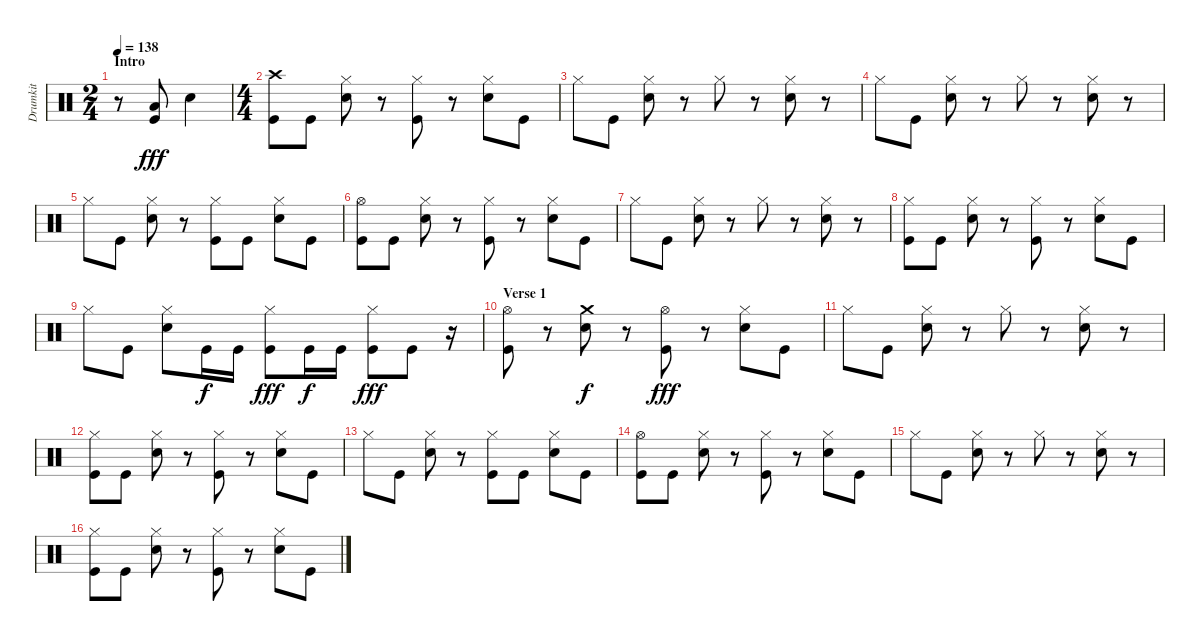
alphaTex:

\track ("Drumkit" "Drumkit") {instrument percussion}
\staff {score}
\articulation defaults
\ts (2 4)
\section ("" "Intro")
\tempo 138
\clef neutral
\ks c
r.8{dy fff} ("Low Tom (hit)" "Kick (hit)").8 "Snare (hit) 2".4 |
\ts (4 4)
("Crash high (hit)" "Kick (hit)").8 "Kick (hit)".8 ("Hi-Hat (closed)" "Snare (hit) 2").8 r.8 ("Hi-Hat (closed)" "Kick (hit)").8 r.8 ("Hi-Hat (closed)" "Snare (hit) 2").8 "Kick (hit)".8 |
"Hi-Hat (closed)".8 "Kick (hit)".8 ("Hi-Hat (closed)" "Snare (hit) 2").8 r.8 "Hi-Hat (closed)".8 r.8 ("Hi-Hat (closed)" "Snare (hit) 2").8 r.8 |
"Hi-Hat (closed)".8 "Kick (hit)".8 ("Hi-Hat (closed)" "Snare (hit) 2").8 r.8 "Hi-Hat (closed)".8 r.8 ("Hi-Hat (closed)" "Snare (hit) 2").8 r.8 |
"Hi-Hat (closed)".8 "Kick (hit)".8 ("Hi-Hat (closed)" "Snare (hit) 2").8 r.8 ("Hi-Hat (closed)" "Kick (hit)").8 "Kick (hit)".8 ("Hi-Hat (closed)" "Snare (hit) 2").8 "Kick (hit)".8 |
("Hi-Hat (open)" "Kick (hit)").8 "Kick (hit)".8 ("Hi-Hat (closed)" "Snare (hit) 2").8 r.8 ("Hi-Hat (closed)" "Kick (hit)").8 r.8 ("Hi-Hat (closed)" "Snare (hit) 2").8 "Kick (hit)".8 |
"Hi-Hat (closed)".8 "Kick (hit)".8 ("Hi-Hat (closed)" "Snare (hit) 2").8 r.8 "Hi-Hat (closed)".8 r.8 ("Hi-Hat (closed)" "Snare (hit) 2").8 r.8 |
("Hi-Hat (closed)" "Kick (hit)").8 "Kick (hit)".8 ("Hi-Hat (closed)" "Snare (hit) 2").8 r.8 ("Hi-Hat (closed)" "Kick (hit)").8 r.8 ("Hi-Hat (closed)" "Snare (hit) 2").8 "Kick (hit)".8 |
"Hi-Hat (closed)".8 "Kick (hit)".8 ("Hi-Hat (closed)" "Snare (hit) 2").8 "Kick (hit)".16{dy f} "Kick (hit)".16 ("Hi-Hat (closed)" "Kick (hit)").8{dy fff} "Kick (hit)".16{dy f} "Kick (hit)".16 ("Hi-Hat (closed)" "Kick (hit)").8{dy fff} "Kick (hit)".8 r.16 |
\section ("" "Verse 1")
("Hi-Hat (open)" "Kick (hit)").8 r.8 ("Crash medium (hit)" "Snare (hit) 2").8{dy f} r.8 ("Hi-Hat (open)" "Kick (hit)").8{dy fff} r.8 ("Hi-Hat (closed)" "Snare (hit) 2").8 "Kick (hit)".8 |
"Hi-Hat (closed)".8 "Kick (hit)".8 ("Hi-Hat (closed)" "Snare (hit) 2").8 r.8 "Hi-Hat (closed)".8 r.8 ("Hi-Hat (closed)" "Snare (hit) 2").8 r.8 |
("Hi-Hat (closed)" "Kick (hit)").8 "Kick (hit)".8 ("Hi-Hat (closed)" "Snare (hit) 2").8 r.8 ("Hi-Hat (closed)" "Kick (hit)").8 r.8 ("Hi-Hat (closed)" "Snare (hit) 2").8 "Kick (hit)".8 |
"Hi-Hat (closed)".8 "Kick (hit)".8 ("Hi-Hat (closed)" "Snare (hit) 2").8 r.8 ("Hi-Hat (closed)" "Kick (hit)").8 "Kick (hit)".8 ("Hi-Hat (closed)" "Snare (hit) 2").8 "Kick (hit)".8 |
("Hi-Hat (open)" "Kick (hit)").8 "Kick (hit)".8 ("Hi-Hat (closed)" "Snare (hit) 2").8 r.8 ("Hi-Hat (closed)" "Kick (hit)").8 r.8 ("Hi-Hat (closed)" "Snare (hit) 2").8 "Kick (hit)".8 |
"Hi-Hat (closed)".8 "Kick (hit)".8 ("Hi-Hat (closed)" "Snare (hit) 2").8 r.8 "Hi-Hat (closed)".8 r.8 ("Hi-Hat (closed)" "Snare (hit) 2").8 r.8 |
("Hi-Hat (closed)" "Kick (hit)").8 "Kick (hit)".8 ("Hi-Hat (closed)" "Snare (hit) 2").8 r.8 ("Hi-Hat (closed)" "Kick (hit)").8 r.8 ("Hi-Hat (closed)" "Snare (hit) 2").8 "Kick (hit)".8
